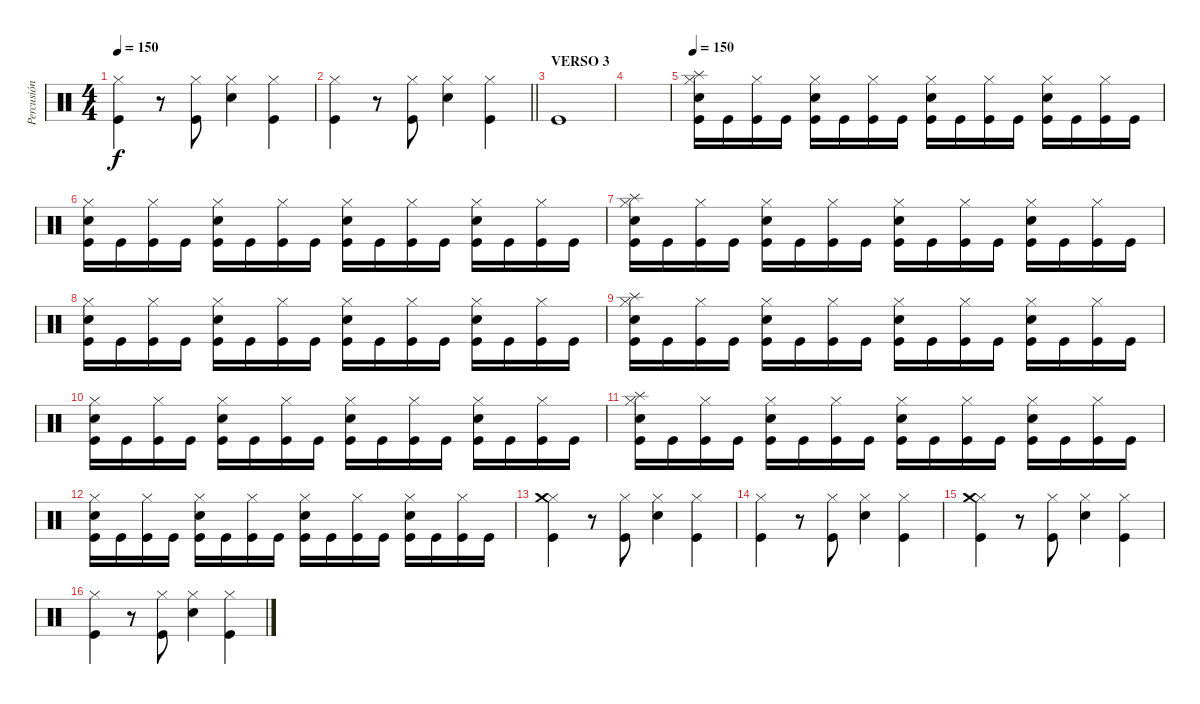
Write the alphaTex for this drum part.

\track ("Percusión" "Percusión") {instrument percussion}
\staff {score}
\articulation defaults
\ts (4 4)
\tempo 150
\clef neutral
\ks c
("Hi-Hat (closed)" "Kick (hit)").4{dy f} r.8 ("Hi-Hat (closed)" "Kick (hit)").8 ("Hi-Hat (closed)" "Snare (hit) 2").4 ("Hi-Hat (closed)" "Kick (hit)").4 |
\barLineRight lightlight
("Hi-Hat (closed)" "Kick (hit)").4 r.8 ("Hi-Hat (closed)" "Kick (hit)").8 ("Hi-Hat (closed)" "Snare (hit) 2").4 ("Hi-Hat (closed)" "Kick (hit)").4 |
\section ("" "VERSO 3")
"Kick (hit)".1 |
|
\tempo 150
("Hi-Hat (closed)" "Splash (hit)" "Snare (hit) 2" "Kick (hit)").16 "Kick (hit)".16 ("Hi-Hat (closed)" "Kick (hit)").16 "Kick (hit)".16 ("Hi-Hat (closed)" "Snare (hit) 2" "Kick (hit)").16 "Kick (hit)".16 ("Hi-Hat (closed)" "Kick (hit)").16 "Kick (hit)".16 ("Hi-Hat (closed)" "Snare (hit) 2" "Kick (hit)").16 "Kick (hit)".16 ("Hi-Hat (closed)" "Kick (hit)").16 "Kick (hit)".16 ("Hi-Hat (closed)" "Snare (hit) 2" "Kick (hit)").16 "Kick (hit)".16 ("Hi-Hat (closed)" "Kick (hit)").16 "Kick (hit)".16 |
("Hi-Hat (closed)" "Snare (hit) 2" "Kick (hit)").16 "Kick (hit)".16 ("Hi-Hat (closed)" "Kick (hit)").16 "Kick (hit)".16 ("Hi-Hat (closed)" "Snare (hit) 2" "Kick (hit)").16 "Kick (hit)".16 ("Hi-Hat (closed)" "Kick (hit)").16 "Kick (hit)".16 ("Hi-Hat (closed)" "Snare (hit) 2" "Kick (hit)").16 "Kick (hit)".16 ("Hi-Hat (closed)" "Kick (hit)").16 "Kick (hit)".16 ("Hi-Hat (closed)" "Snare (hit) 2" "Kick (hit)").16 "Kick (hit)".16 ("Hi-Hat (closed)" "Kick (hit)").16 "Kick (hit)".16 |
("Hi-Hat (closed)" "Splash (hit)" "Snare (hit) 2" "Kick (hit)").16 "Kick (hit)".16 ("Hi-Hat (closed)" "Kick (hit)").16 "Kick (hit)".16 ("Hi-Hat (closed)" "Snare (hit) 2" "Kick (hit)").16 "Kick (hit)".16 ("Hi-Hat (closed)" "Kick (hit)").16 "Kick (hit)".16 ("Hi-Hat (closed)" "Snare (hit) 2" "Kick (hit)").16 "Kick (hit)".16 ("Hi-Hat (closed)" "Kick (hit)").16 "Kick (hit)".16 ("Hi-Hat (closed)" "Snare (hit) 2" "Kick (hit)").16 "Kick (hit)".16 ("Hi-Hat (closed)" "Kick (hit)").16 "Kick (hit)".16 |
("Hi-Hat (closed)" "Snare (hit) 2" "Kick (hit)").16 "Kick (hit)".16 ("Hi-Hat (closed)" "Kick (hit)").16 "Kick (hit)".16 ("Hi-Hat (closed)" "Snare (hit) 2" "Kick (hit)").16 "Kick (hit)".16 ("Hi-Hat (closed)" "Kick (hit)").16 "Kick (hit)".16 ("Hi-Hat (closed)" "Snare (hit) 2" "Kick (hit)").16 "Kick (hit)".16 ("Hi-Hat (closed)" "Kick (hit)").16 "Kick (hit)".16 ("Hi-Hat (closed)" "Snare (hit) 2" "Kick (hit)").16 "Kick (hit)".16 ("Hi-Hat (closed)" "Kick (hit)").16 "Kick (hit)".16 |
("Hi-Hat (closed)" "Splash (hit)" "Snare (hit) 2" "Kick (hit)").16 "Kick (hit)".16 ("Hi-Hat (closed)" "Kick (hit)").16 "Kick (hit)".16 ("Hi-Hat (closed)" "Snare (hit) 2" "Kick (hit)").16 "Kick (hit)".16 ("Hi-Hat (closed)" "Kick (hit)").16 "Kick (hit)".16 ("Hi-Hat (closed)" "Snare (hit) 2" "Kick (hit)").16 "Kick (hit)".16 ("Hi-Hat (closed)" "Kick (hit)").16 "Kick (hit)".16 ("Hi-Hat (closed)" "Snare (hit) 2" "Kick (hit)").16 "Kick (hit)".16 ("Hi-Hat (closed)" "Kick (hit)").16 "Kick (hit)".16 |
("Hi-Hat (closed)" "Snare (hit) 2" "Kick (hit)").16 "Kick (hit)".16 ("Hi-Hat (closed)" "Kick (hit)").16 "Kick (hit)".16 ("Hi-Hat (closed)" "Snare (hit) 2" "Kick (hit)").16 "Kick (hit)".16 ("Hi-Hat (closed)" "Kick (hit)").16 "Kick (hit)".16 ("Hi-Hat (closed)" "Snare (hit) 2" "Kick (hit)").16 "Kick (hit)".16 ("Hi-Hat (closed)" "Kick (hit)").16 "Kick (hit)".16 ("Hi-Hat (closed)" "Snare (hit) 2" "Kick (hit)").16 "Kick (hit)".16 ("Hi-Hat (closed)" "Kick (hit)").16 "Kick (hit)".16 |
("Hi-Hat (closed)" "Splash (hit)" "Snare (hit) 2" "Kick (hit)").16 "Kick (hit)".16 ("Hi-Hat (closed)" "Kick (hit)").16 "Kick (hit)".16 ("Hi-Hat (closed)" "Snare (hit) 2" "Kick (hit)").16 "Kick (hit)".16 ("Hi-Hat (closed)" "Kick (hit)").16 "Kick (hit)".16 ("Hi-Hat (closed)" "Snare (hit) 2" "Kick (hit)").16 "Kick (hit)".16 ("Hi-Hat (closed)" "Kick (hit)").16 "Kick (hit)".16 ("Hi-Hat (closed)" "Snare (hit) 2" "Kick (hit)").16 "Kick (hit)".16 ("Hi-Hat (closed)" "Kick (hit)").16 "Kick (hit)".16 |
("Hi-Hat (closed)" "Snare (hit) 2" "Kick (hit)").16 "Kick (hit)".16 ("Hi-Hat (closed)" "Kick (hit)").16 "Kick (hit)".16 ("Hi-Hat (closed)" "Snare (hit) 2" "Kick (hit)").16 "Kick (hit)".16 ("Hi-Hat (closed)" "Kick (hit)").16 "Kick (hit)".16 ("Hi-Hat (closed)" "Snare (hit) 2" "Kick (hit)").16 "Kick (hit)".16 ("Hi-Hat (closed)" "Kick (hit)").16 "Kick (hit)".16 ("Hi-Hat (closed)" "Snare (hit) 2" "Kick (hit)").16 "Kick (hit)".16 ("Hi-Hat (closed)" "Kick (hit)").16 "Kick (hit)".16 |
("Hi-Hat (closed)" "Crash medium (hit)" "Kick (hit)").4 r.8 ("Hi-Hat (closed)" "Kick (hit)").8 ("Hi-Hat (closed)" "Snare (hit) 2").4 ("Hi-Hat (closed)" "Kick (hit)").4 |
("Hi-Hat (closed)" "Kick (hit)").4 r.8 ("Hi-Hat (closed)" "Kick (hit)").8 ("Hi-Hat (closed)" "Snare (hit) 2").4 ("Hi-Hat (closed)" "Kick (hit)").4 |
("Hi-Hat (closed)" "Crash medium (hit)" "Kick (hit)").4 r.8 ("Hi-Hat (closed)" "Kick (hit)").8 ("Hi-Hat (closed)" "Snare (hit) 2").4 ("Hi-Hat (closed)" "Kick (hit)").4 |
("Hi-Hat (closed)" "Kick (hit)").4 r.8 ("Hi-Hat (closed)" "Kick (hit)").8 ("Hi-Hat (closed)" "Snare (hit) 2").4 ("Hi-Hat (closed)" "Kick (hit)").4
